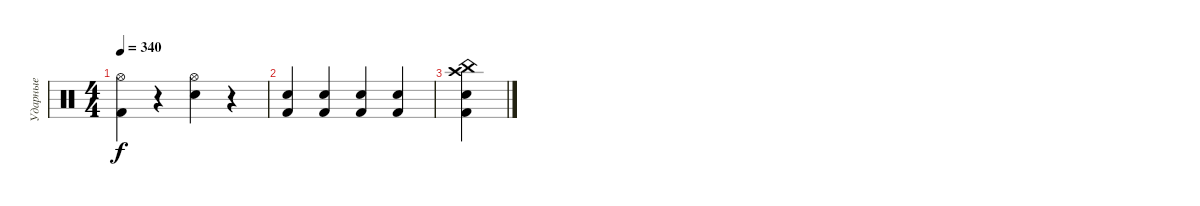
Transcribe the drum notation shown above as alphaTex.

\track ("Ударные" "Ударные") {instrument percussion}
\staff {score}
\articulation defaults
\ts (4 4)
\tempo 340
\clef neutral
\ks c
("Kick (hit) 2" "Hi-Hat (open)").4{dy f} r.4 ("Electric Snare (hit)" "Hi-Hat (open)").4 r.4 |
("Electric Snare (hit)" "Kick (hit) 2").4 ("Kick (hit) 2" "Electric Snare (hit)").4 ("Electric Snare (hit)" "Kick (hit) 2").4 ("Kick (hit) 2" "Electric Snare (hit)").4 |
("Electric Snare (hit)" "Kick (hit) 2" "Crash high (hit)" "China (hit)").4
